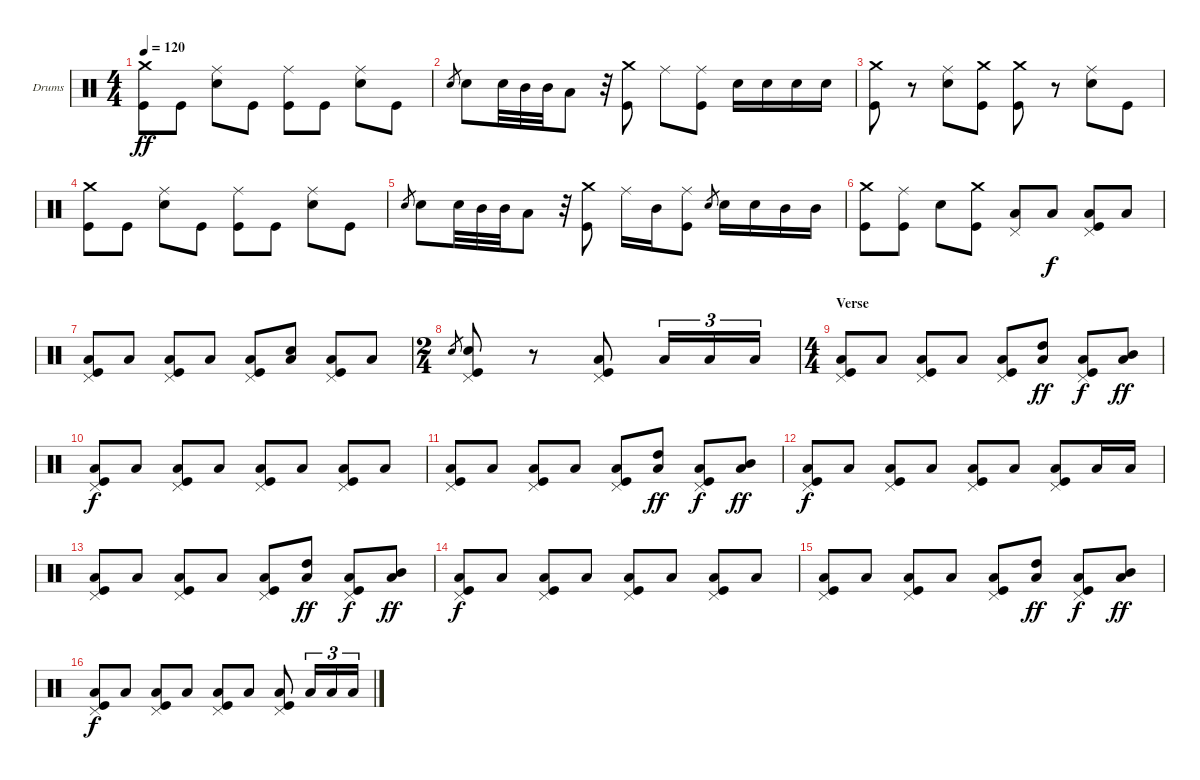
\bracketExtendMode groupsimilarinstruments
\firstSystemTrackNameOrientation horizontal
\otherSystemsTrackNameOrientation horizontal
\track ("Drums" "Drums") {instrument percussion}
\staff {score}
\articulation defaults
\ts (4 4)
\tempo 120
\clef neutral
\ks c
("Crash medium (hit)" "Kick (hit)").8{dy ff} "Kick (hit)".8 ("Ride (middle)" "Snare (hit) 2").8 "Kick (hit)".8 ("Ride (middle)" "Kick (hit)").8 "Kick (hit)".8 ("Ride (middle)" "Snare (hit) 2").8 "Kick (hit)".8 |
"Snare (hit) 2".8{gr} "Snare (hit) 2".8 "Snare (hit) 2".32 "Mid Tom (hit)".32 "Mid Tom (hit)".32 "Low Tom (hit)".8 r.32 ("Kick (hit)" "Crash medium (hit)").8 "Ride (middle)".8 ("Ride (middle)" "Kick (hit)").8 "Snare (hit) 2".16 "Snare (hit) 2".16 "Snare (hit) 2".16 "Snare (hit) 2".16 |
("Crash medium (hit)" "Kick (hit)").8 r.8 ("Ride (middle)" "Snare (hit) 2").8 ("Crash medium (hit)" "Kick (hit)").8 ("Crash medium (hit)" "Kick (hit)").8 r.8 ("Ride (middle)" "Snare (hit) 2").8 "Kick (hit)".8 |
("Crash medium (hit)" "Kick (hit)").8 "Kick (hit)".8 ("Ride (middle)" "Snare (hit) 2").8 "Kick (hit)".8 ("Ride (middle)" "Kick (hit)").8 "Kick (hit)".8 ("Ride (middle)" "Snare (hit) 2").8 "Kick (hit)".8 |
"Snare (hit) 2".8{gr} "Snare (hit) 2".8 "Snare (hit) 2".32 "Mid Tom (hit)".32 "Mid Tom (hit)".32 "Low Tom (hit)".8 r.32 ("Kick (hit)" "Crash medium (hit)").8 "Ride (middle)".16 "Mid Tom (hit)".16 ("Ride (middle)" "Kick (hit)").8 "Snare (hit) 2".8{gr} "Snare (hit) 2".16 "Snare (hit) 2".16 "Mid Tom (hit)".16 "Mid Tom (hit)".16 |
("Crash medium (hit)" "Kick (hit)").8 ("Ride (middle)" "Kick (hit)").8 "Snare (hit) 2".8 ("Crash medium (hit)" "Kick (hit)").8 ("Low Tom (hit)" "Pedal Hi-Hat (hit)").8 "Low Tom (hit)".8{dy f} ("Low Tom (hit)" "Kick (hit)" "Pedal Hi-Hat (hit)").8 "Low Tom (hit)".8 |
("Low Tom (hit)" "Kick (hit)" "Pedal Hi-Hat (hit)").8 "Low Tom (hit)".8 ("Low Tom (hit)" "Kick (hit)" "Pedal Hi-Hat (hit)").8 "Low Tom (hit)".8 ("Low Tom (hit)" "Kick (hit)" "Pedal Hi-Hat (hit)").8 ("Low Tom (hit)" "Snare (hit) 2").8 ("Low Tom (hit)" "Kick (hit)" "Pedal Hi-Hat (hit)").8 "Low Tom (hit)".8 |
\ts (2 4)
"Snare (hit) 2".8{gr} ("Kick (hit)" "Pedal Hi-Hat (hit)" "Snare (hit) 2").8 r.8 ("Kick (hit)" "Pedal Hi-Hat (hit)" "Low Tom (hit)").8 "Low Tom (hit)".16{tu (3 2)} "Low Tom (hit)".16{tu (3 2)} "Low Tom (hit)".16{tu (3 2)} |
\ts (4 4)
\section ("" "Verse")
("Kick (hit)" "Pedal Hi-Hat (hit)" "Low Tom (hit)").8 "Low Tom (hit)".8 ("Kick (hit)" "Pedal Hi-Hat (hit)" "Low Tom (hit)").8 "Low Tom (hit)".8 ("Kick (hit)" "Pedal Hi-Hat (hit)" "Low Tom (hit)").8 ("Low Tom (hit)" "High Tom (hit)").8{dy ff} ("Kick (hit)" "Pedal Hi-Hat (hit)" "Low Tom (hit)").8{dy f} ("Low Tom (hit)" "Mid Tom (hit)").8{dy ff} |
("Kick (hit)" "Pedal Hi-Hat (hit)" "Low Tom (hit)").8{dy f} "Low Tom (hit)".8 ("Kick (hit)" "Pedal Hi-Hat (hit)" "Low Tom (hit)").8 "Low Tom (hit)".8 ("Kick (hit)" "Pedal Hi-Hat (hit)" "Low Tom (hit)").8 "Low Tom (hit)".8 ("Kick (hit)" "Pedal Hi-Hat (hit)" "Low Tom (hit)").8 "Low Tom (hit)".8 |
("Kick (hit)" "Pedal Hi-Hat (hit)" "Low Tom (hit)").8 "Low Tom (hit)".8 ("Kick (hit)" "Pedal Hi-Hat (hit)" "Low Tom (hit)").8 "Low Tom (hit)".8 ("Kick (hit)" "Pedal Hi-Hat (hit)" "Low Tom (hit)").8 ("Low Tom (hit)" "High Tom (hit)").8{dy ff} ("Kick (hit)" "Pedal Hi-Hat (hit)" "Low Tom (hit)").8{dy f} ("Low Tom (hit)" "Mid Tom (hit)").8{dy ff} |
("Kick (hit)" "Pedal Hi-Hat (hit)" "Low Tom (hit)").8{dy f} "Low Tom (hit)".8 ("Kick (hit)" "Pedal Hi-Hat (hit)" "Low Tom (hit)").8 "Low Tom (hit)".8 ("Kick (hit)" "Pedal Hi-Hat (hit)" "Low Tom (hit)").8 "Low Tom (hit)".8 ("Kick (hit)" "Pedal Hi-Hat (hit)" "Low Tom (hit)").8 "Low Tom (hit)".16 "Low Tom (hit)".16 |
("Kick (hit)" "Pedal Hi-Hat (hit)" "Low Tom (hit)").8 "Low Tom (hit)".8 ("Kick (hit)" "Pedal Hi-Hat (hit)" "Low Tom (hit)").8 "Low Tom (hit)".8 ("Kick (hit)" "Pedal Hi-Hat (hit)" "Low Tom (hit)").8 ("Low Tom (hit)" "High Tom (hit)").8{dy ff} ("Kick (hit)" "Pedal Hi-Hat (hit)" "Low Tom (hit)").8{dy f} ("Low Tom (hit)" "Mid Tom (hit)").8{dy ff} |
("Kick (hit)" "Pedal Hi-Hat (hit)" "Low Tom (hit)").8{dy f} "Low Tom (hit)".8 ("Kick (hit)" "Pedal Hi-Hat (hit)" "Low Tom (hit)").8 "Low Tom (hit)".8 ("Kick (hit)" "Pedal Hi-Hat (hit)" "Low Tom (hit)").8 "Low Tom (hit)".8 ("Kick (hit)" "Pedal Hi-Hat (hit)" "Low Tom (hit)").8 "Low Tom (hit)".8 |
("Kick (hit)" "Pedal Hi-Hat (hit)" "Low Tom (hit)").8 "Low Tom (hit)".8 ("Kick (hit)" "Pedal Hi-Hat (hit)" "Low Tom (hit)").8 "Low Tom (hit)".8 ("Kick (hit)" "Pedal Hi-Hat (hit)" "Low Tom (hit)").8 ("Low Tom (hit)" "High Tom (hit)").8{dy ff} ("Kick (hit)" "Pedal Hi-Hat (hit)" "Low Tom (hit)").8{dy f} ("Low Tom (hit)" "Mid Tom (hit)").8{dy ff} |
("Kick (hit)" "Pedal Hi-Hat (hit)" "Low Tom (hit)").8{dy f} "Low Tom (hit)".8 ("Kick (hit)" "Pedal Hi-Hat (hit)" "Low Tom (hit)").8 "Low Tom (hit)".8 ("Kick (hit)" "Pedal Hi-Hat (hit)" "Low Tom (hit)").8 "Low Tom (hit)".8 ("Kick (hit)" "Pedal Hi-Hat (hit)" "Low Tom (hit)").8 "Low Tom (hit)".16{tu (3 2)} "Low Tom (hit)".16{tu (3 2)} "Low Tom (hit)".16{tu (3 2)}
